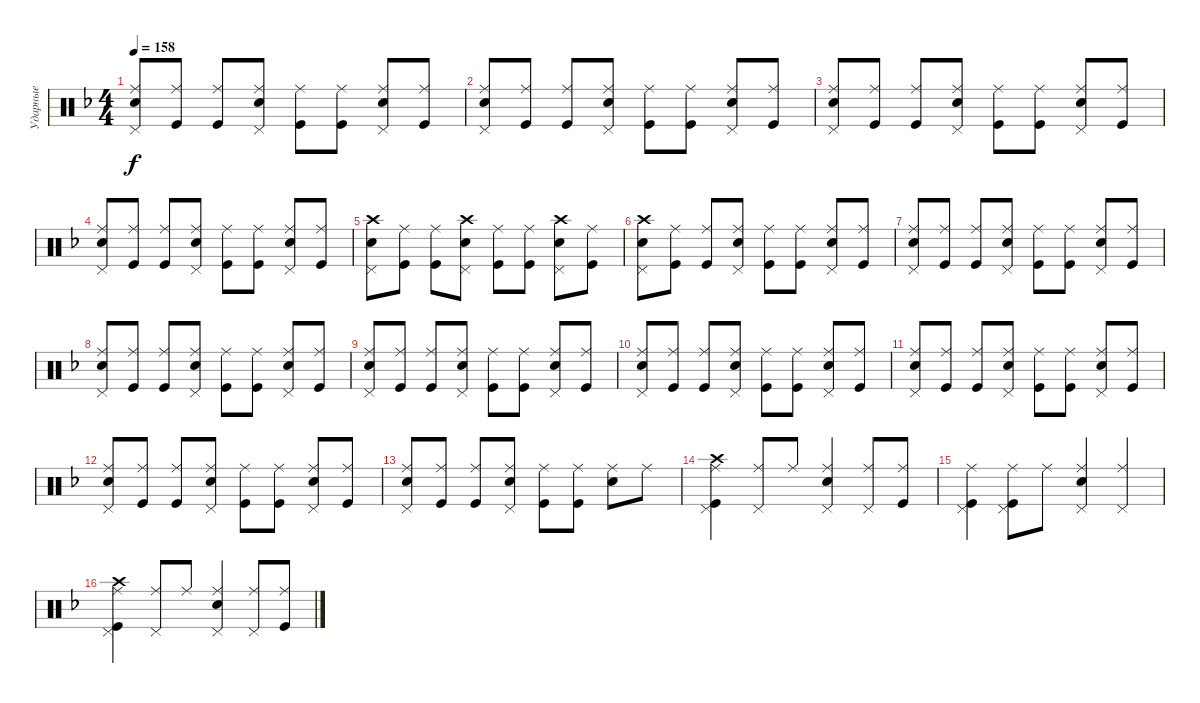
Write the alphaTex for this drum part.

\track ("Ударные" "Ударные") {instrument percussion}
\staff {score}
\articulation defaults
\ts (4 4)
\tempo 158
\clef neutral
\ks dminor
("Snare (hit) 2" "Ride (middle)" "Pedal Hi-Hat (hit)").8{dy f} ("Kick (hit)" "Ride (middle)").8 ("Kick (hit)" "Ride (middle)").8 ("Snare (hit) 2" "Ride (middle)" "Pedal Hi-Hat (hit)").8 ("Kick (hit)" "Ride (middle)").8 ("Kick (hit)" "Ride (middle)").8 ("Snare (hit) 2" "Ride (middle)" "Pedal Hi-Hat (hit)").8 ("Kick (hit)" "Ride (middle)").8 |
("Snare (hit) 2" "Ride (middle)" "Pedal Hi-Hat (hit)").8 ("Kick (hit)" "Ride (middle)").8 ("Kick (hit)" "Ride (middle)").8 ("Snare (hit) 2" "Ride (middle)" "Pedal Hi-Hat (hit)").8 ("Kick (hit)" "Ride (middle)").8 ("Kick (hit)" "Ride (middle)").8 ("Snare (hit) 2" "Ride (middle)" "Pedal Hi-Hat (hit)").8 ("Kick (hit)" "Ride (middle)").8 |
("Snare (hit) 2" "Ride (middle)" "Pedal Hi-Hat (hit)").8 ("Kick (hit)" "Ride (middle)").8 ("Kick (hit)" "Ride (middle)").8 ("Snare (hit) 2" "Ride (middle)" "Pedal Hi-Hat (hit)").8 ("Kick (hit)" "Ride (middle)").8 ("Kick (hit)" "Ride (middle)").8 ("Snare (hit) 2" "Ride (middle)" "Pedal Hi-Hat (hit)").8 ("Kick (hit)" "Ride (middle)").8 |
("Snare (hit) 2" "Ride (middle)" "Pedal Hi-Hat (hit)").8 ("Kick (hit)" "Ride (middle)").8 ("Kick (hit)" "Ride (middle)").8 ("Snare (hit) 2" "Ride (middle)" "Pedal Hi-Hat (hit)").8 ("Kick (hit)" "Ride (middle)").8 ("Kick (hit)" "Ride (middle)").8 ("Snare (hit) 2" "Ride (middle)" "Pedal Hi-Hat (hit)").8 ("Kick (hit)" "Ride (middle)").8 |
("Snare (hit) 2" "Crash high (hit)" "Pedal Hi-Hat (hit)").8 ("Kick (hit)" "Ride (middle)").8 ("Kick (hit)" "Ride (middle)").8 ("Snare (hit) 2" "Crash high (hit)" "Pedal Hi-Hat (hit)").8 ("Kick (hit)" "Ride (middle)").8 ("Kick (hit)" "Ride (middle)").8 ("Snare (hit) 2" "Crash high (hit)" "Pedal Hi-Hat (hit)").8 ("Kick (hit)" "Ride (middle)").8 |
("Snare (hit) 2" "Crash high (hit)" "Pedal Hi-Hat (hit)").8 ("Kick (hit)" "Ride (middle)").8 ("Kick (hit)" "Ride (middle)").8 ("Snare (hit) 2" "Ride (middle)" "Pedal Hi-Hat (hit)").8 ("Kick (hit)" "Ride (middle)").8 ("Kick (hit)" "Ride (middle)").8 ("Snare (hit) 2" "Ride (middle)" "Pedal Hi-Hat (hit)").8 ("Kick (hit)" "Ride (middle)").8 |
("Snare (hit) 2" "Ride (middle)" "Pedal Hi-Hat (hit)").8 ("Kick (hit)" "Ride (middle)").8 ("Kick (hit)" "Ride (middle)").8 ("Snare (hit) 2" "Ride (middle)" "Pedal Hi-Hat (hit)").8 ("Kick (hit)" "Ride (middle)").8 ("Kick (hit)" "Ride (middle)").8 ("Snare (hit) 2" "Ride (middle)" "Pedal Hi-Hat (hit)").8 ("Kick (hit)" "Ride (middle)").8 |
("Snare (hit) 2" "Ride (middle)" "Pedal Hi-Hat (hit)").8 ("Kick (hit)" "Ride (middle)").8 ("Kick (hit)" "Ride (middle)").8 ("Snare (hit) 2" "Ride (middle)" "Pedal Hi-Hat (hit)").8 ("Kick (hit)" "Ride (middle)").8 ("Kick (hit)" "Ride (middle)").8 ("Snare (hit) 2" "Ride (middle)" "Pedal Hi-Hat (hit)").8 ("Kick (hit)" "Ride (middle)").8 |
("Snare (hit) 2" "Ride (middle)" "Pedal Hi-Hat (hit)").8 ("Kick (hit)" "Ride (middle)").8 ("Kick (hit)" "Ride (middle)").8 ("Snare (hit) 2" "Ride (middle)" "Pedal Hi-Hat (hit)").8 ("Kick (hit)" "Ride (middle)").8 ("Kick (hit)" "Ride (middle)").8 ("Snare (hit) 2" "Ride (middle)" "Pedal Hi-Hat (hit)").8 ("Kick (hit)" "Ride (middle)").8 |
("Snare (hit) 2" "Ride (middle)" "Pedal Hi-Hat (hit)").8 ("Kick (hit)" "Ride (middle)").8 ("Kick (hit)" "Ride (middle)").8 ("Snare (hit) 2" "Ride (middle)" "Pedal Hi-Hat (hit)").8 ("Kick (hit)" "Ride (middle)").8 ("Kick (hit)" "Ride (middle)").8 ("Snare (hit) 2" "Ride (middle)" "Pedal Hi-Hat (hit)").8 ("Kick (hit)" "Ride (middle)").8 |
("Snare (hit) 2" "Ride (middle)" "Pedal Hi-Hat (hit)").8 ("Kick (hit)" "Ride (middle)").8 ("Kick (hit)" "Ride (middle)").8 ("Snare (hit) 2" "Ride (middle)" "Pedal Hi-Hat (hit)").8 ("Kick (hit)" "Ride (middle)").8 ("Kick (hit)" "Ride (middle)").8 ("Snare (hit) 2" "Ride (middle)" "Pedal Hi-Hat (hit)").8 ("Kick (hit)" "Ride (middle)").8 |
("Snare (hit) 2" "Ride (middle)" "Pedal Hi-Hat (hit)").8 ("Kick (hit)" "Ride (middle)").8 ("Kick (hit)" "Ride (middle)").8 ("Snare (hit) 2" "Ride (middle)" "Pedal Hi-Hat (hit)").8 ("Kick (hit)" "Ride (middle)").8 ("Kick (hit)" "Ride (middle)").8 ("Snare (hit) 2" "Ride (middle)" "Pedal Hi-Hat (hit)").8 ("Kick (hit)" "Ride (middle)").8 |
("Snare (hit) 2" "Ride (middle)" "Pedal Hi-Hat (hit)").8 ("Kick (hit)" "Ride (middle)").8 ("Kick (hit)" "Ride (middle)").8 ("Snare (hit) 2" "Ride (middle)" "Pedal Hi-Hat (hit)").8 ("Kick (hit)" "Ride (middle)").8 ("Kick (hit)" "Ride (middle)").8 ("Snare (hit) 2" "Ride (middle)").8 "Ride (middle)".8 |
("Kick (hit)" "Crash high (hit)" "Pedal Hi-Hat (hit)" "Ride (middle)").4 ("Ride (middle)" "Pedal Hi-Hat (hit)").8 "Ride (middle)".8 ("Snare (hit) 2" "Ride (middle)" "Pedal Hi-Hat (hit)").4 ("Ride (middle)" "Pedal Hi-Hat (hit)").8 ("Kick (hit)" "Ride (middle)").8 |
("Kick (hit)" "Pedal Hi-Hat (hit)" "Ride (middle)").4 ("Kick (hit)" "Pedal Hi-Hat (hit)" "Ride (middle)").8 "Ride (middle)".8 ("Snare (hit) 2" "Pedal Hi-Hat (hit)" "Ride (middle)").4 ("Ride (middle)" "Pedal Hi-Hat (hit)").4 |
("Kick (hit)" "Crash high (hit)" "Pedal Hi-Hat (hit)" "Ride (middle)").4 ("Ride (middle)" "Pedal Hi-Hat (hit)").8 "Ride (middle)".8 ("Snare (hit) 2" "Ride (middle)" "Pedal Hi-Hat (hit)").4 ("Ride (middle)" "Pedal Hi-Hat (hit)").8 ("Kick (hit)" "Ride (middle)").8
